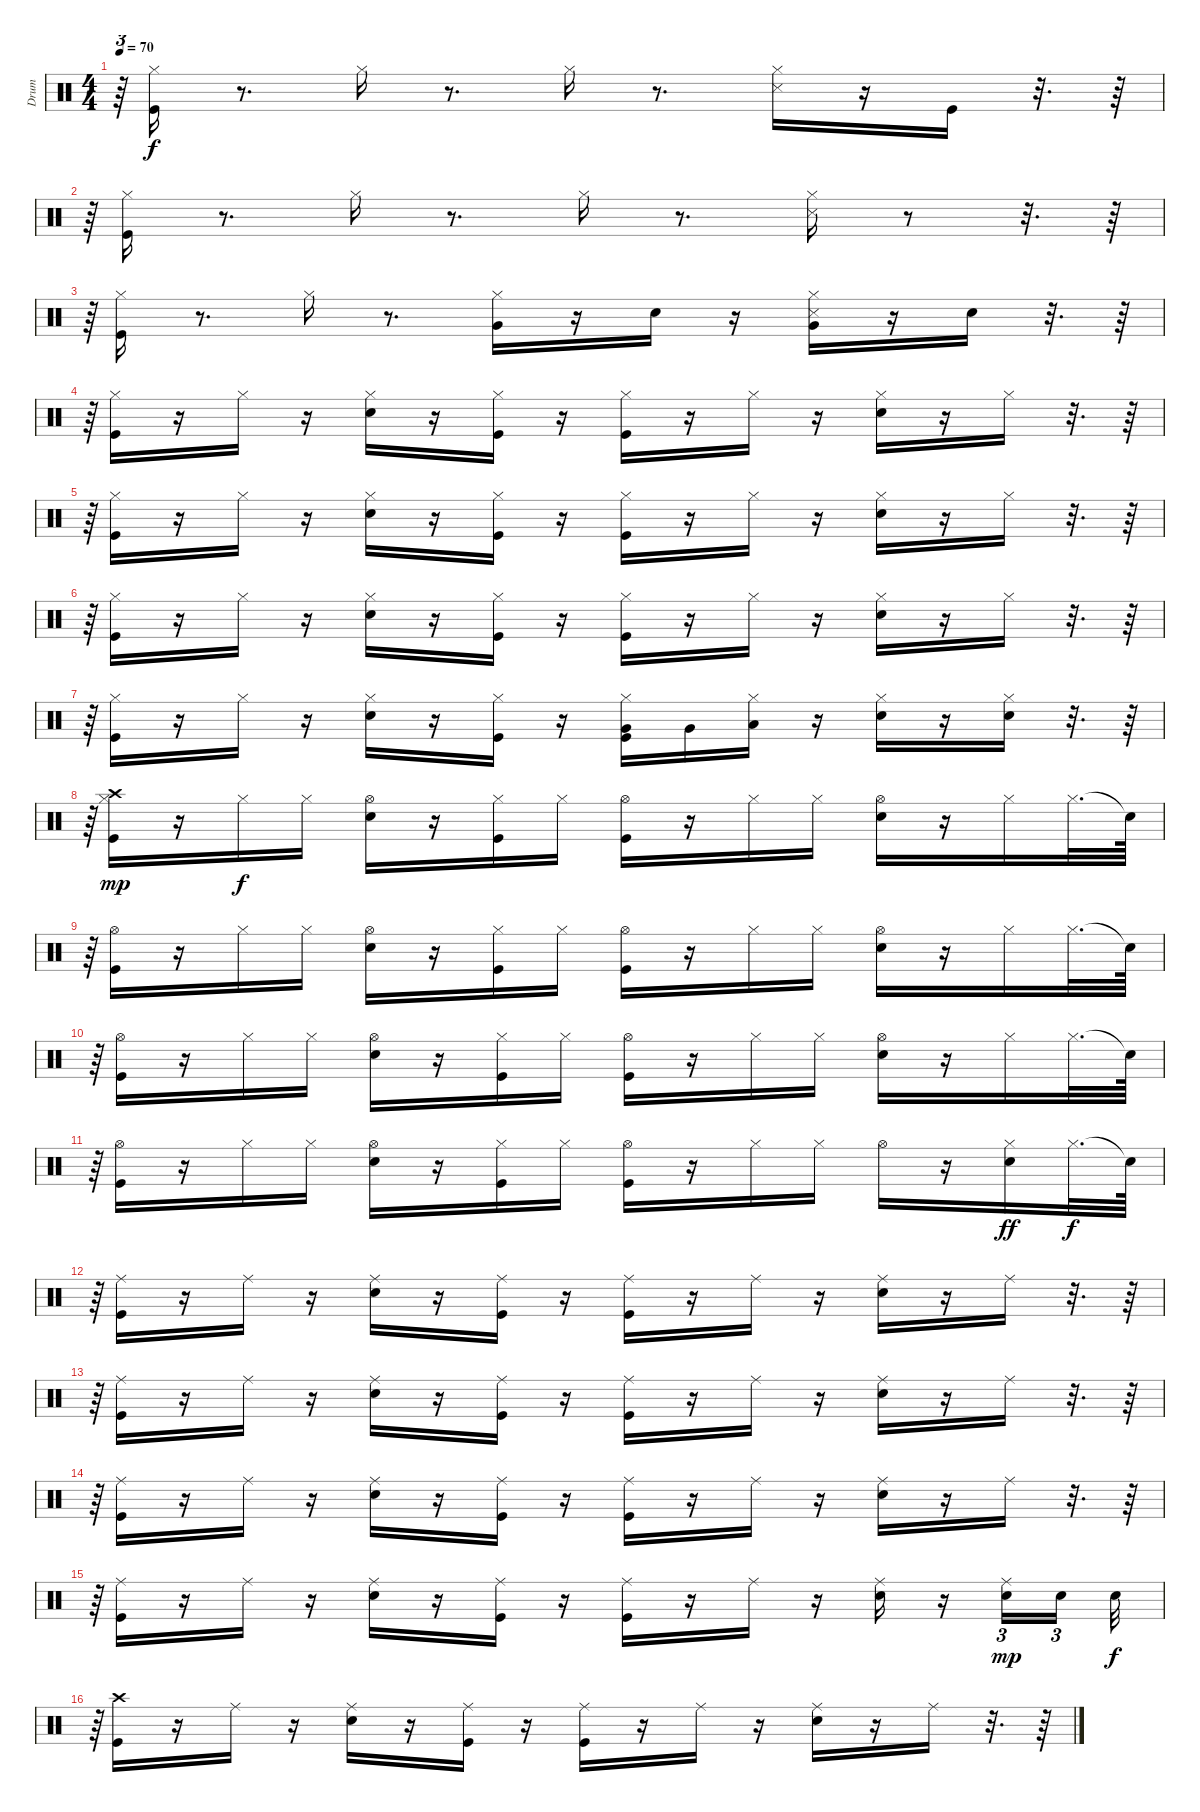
\track ("Drum" "Drum") {instrument percussion}
\staff {score}
\articulation defaults
\ts (4 4)
\tempo 70
\clef neutral
\ks c
r.64{tu (3 2) dy f} ("Kick (hit)" "Hi-Hat (closed)").16 r.8{d} "Hi-Hat (closed)".16 r.8{d} "Hi-Hat (closed)".16 r.8{d} ("Hi-Hat (closed)" "Snare (side stick) 3").16 r.16 "Kick (hit)".16 r.32{d} r.64 |
r.64{tu (3 2)} ("Kick (hit)" "Hi-Hat (closed)").16 r.8{d} "Hi-Hat (closed)".16 r.8{d} "Hi-Hat (closed)".16 r.8{d} ("Hi-Hat (closed)" "Snare (side stick) 3").16 r.8 r.32{d} r.64 |
r.64{tu (3 2)} ("Kick (hit)" "Hi-Hat (closed)").16 r.8{d} "Hi-Hat (closed)".16 r.8{d} ("Hi-Hat (closed)" "Very Low Tom (hit)").16 r.16 "Snare (hit) 2".16 r.16 ("Hi-Hat (closed)" "Snare (side stick) 3" "Very Low Tom (hit)").16 r.16 "Snare (hit) 2".16 r.32{d} r.64 |
r.64{tu (3 2)} ("Kick (hit)" "Hi-Hat (closed)").16 r.16 "Hi-Hat (closed)".16 r.16 ("Snare (hit) 2" "Hi-Hat (closed)").16 r.16 ("Kick (hit)" "Hi-Hat (closed)").16 r.16 ("Kick (hit)" "Hi-Hat (closed)").16 r.16 "Hi-Hat (closed)".16 r.16 ("Snare (hit) 2" "Hi-Hat (closed)").16 r.16 "Hi-Hat (closed)".16 r.32{d} r.64 |
r.64{tu (3 2)} ("Kick (hit)" "Hi-Hat (closed)").16 r.16 "Hi-Hat (closed)".16 r.16 ("Snare (hit) 2" "Hi-Hat (closed)").16 r.16 ("Kick (hit)" "Hi-Hat (closed)").16 r.16 ("Kick (hit)" "Hi-Hat (closed)").16 r.16 "Hi-Hat (closed)".16 r.16 ("Snare (hit) 2" "Hi-Hat (closed)").16 r.16 "Hi-Hat (closed)".16 r.32{d} r.64 |
r.64{tu (3 2)} ("Kick (hit)" "Hi-Hat (closed)").16 r.16 "Hi-Hat (closed)".16 r.16 ("Snare (hit) 2" "Hi-Hat (closed)").16 r.16 ("Kick (hit)" "Hi-Hat (closed)").16 r.16 ("Kick (hit)" "Hi-Hat (closed)").16 r.16 "Hi-Hat (closed)".16 r.16 ("Snare (hit) 2" "Hi-Hat (closed)").16 r.16 "Hi-Hat (closed)".16 r.32{d} r.64 |
r.64{tu (3 2)} ("Kick (hit)" "Hi-Hat (closed)").16 r.16 "Hi-Hat (closed)".16 r.16 ("Snare (hit) 2" "Hi-Hat (closed)").16 r.16 ("Kick (hit)" "Hi-Hat (closed)").16 r.16 ("Kick (hit)" "Hi-Hat (closed)" "Very Low Tom (hit)").16 "Very Low Tom (hit)".16 ("Hi-Hat (closed)" "Low Floor Tom (hit)").16 r.16 ("Snare (hit) 2" "Hi-Hat (closed)").16 r.16 ("Hi-Hat (closed)" "Snare (hit) 2").16 r.32{d} r.64 |
r.64{tu (3 2)} ("Kick (hit)" "Hi-Hat (closed)" "Crash high (hit)").16{dy mp} r.16 "Hi-Hat (closed)".16{dy f} "Hi-Hat (closed)".16 ("Snare (hit) 2" "Hi-Hat (open)").16 r.16 ("Kick (hit)" "Hi-Hat (closed)").16 "Hi-Hat (closed)".16 ("Kick (hit)" "Hi-Hat (open)").16 r.16 "Hi-Hat (closed)".16 "Hi-Hat (closed)".16 ("Snare (hit) 2" "Hi-Hat (open)").16 r.16 "Hi-Hat (closed)".16 "Hi-Hat (closed)".32{d} "Snare (hit)"{t}.64 |
r.64{tu (3 2)} ("Kick (hit)" "Hi-Hat (open)").16 r.16 "Hi-Hat (closed)".16 "Hi-Hat (closed)".16 ("Snare (hit) 2" "Hi-Hat (open)").16 r.16 ("Kick (hit)" "Hi-Hat (closed)").16 "Hi-Hat (closed)".16 ("Kick (hit)" "Hi-Hat (open)").16 r.16 "Hi-Hat (closed)".16 "Hi-Hat (closed)".16 ("Snare (hit) 2" "Hi-Hat (open)").16 r.16 "Hi-Hat (closed)".16 "Hi-Hat (closed)".32{d} "Snare (hit)"{t}.64 |
r.64{tu (3 2)} ("Kick (hit)" "Hi-Hat (open)").16 r.16 "Hi-Hat (closed)".16 "Hi-Hat (closed)".16 ("Snare (hit) 2" "Hi-Hat (open)").16 r.16 ("Kick (hit)" "Hi-Hat (closed)").16 "Hi-Hat (closed)".16 ("Kick (hit)" "Hi-Hat (open)").16 r.16 "Hi-Hat (closed)".16 "Hi-Hat (closed)".16 ("Snare (hit) 2" "Hi-Hat (open)").16 r.16 "Hi-Hat (closed)".16 "Hi-Hat (closed)".32{d} "Snare (hit)"{t}.64 |
r.64{tu (3 2)} ("Kick (hit)" "Hi-Hat (open)").16 r.16 "Hi-Hat (closed)".16 "Hi-Hat (closed)".16 ("Snare (hit) 2" "Hi-Hat (open)").16 r.16 ("Kick (hit)" "Hi-Hat (closed)").16 "Hi-Hat (closed)".16 ("Kick (hit)" "Hi-Hat (open)").16 r.16 "Hi-Hat (closed)".16 "Hi-Hat (closed)".16 "Hi-Hat (open)".16 r.16 ("Hi-Hat (closed)" "Snare (hit) 2").16{dy ff} "Hi-Hat (closed)".32{d dy f} "Snare (hit)"{t}.64 |
r.64{tu (3 2)} ("Kick (hit)" "Ride (middle)").16 r.16 "Ride (middle)".16 r.16 ("Snare (hit) 2" "Ride (middle)").16 r.16 ("Kick (hit)" "Ride (middle)").16 r.16 ("Kick (hit)" "Ride (middle)").16 r.16 "Ride (middle)".16 r.16 ("Snare (hit) 2" "Ride (middle)").16 r.16 "Ride (middle)".16 r.32{d} r.64 |
r.64{tu (3 2)} ("Kick (hit)" "Ride (middle)").16 r.16 "Ride (middle)".16 r.16 ("Snare (hit) 2" "Ride (middle)").16 r.16 ("Kick (hit)" "Ride (middle)").16 r.16 ("Kick (hit)" "Ride (middle)").16 r.16 "Ride (middle)".16 r.16 ("Snare (hit) 2" "Ride (middle)").16 r.16 "Ride (middle)".16 r.32{d} r.64 |
r.64{tu (3 2)} ("Kick (hit)" "Ride (middle)").16 r.16 "Ride (middle)".16 r.16 ("Snare (hit) 2" "Ride (middle)").16 r.16 ("Kick (hit)" "Ride (middle)").16 r.16 ("Kick (hit)" "Ride (middle)").16 r.16 "Ride (middle)".16 r.16 ("Snare (hit) 2" "Ride (middle)").16 r.16 "Ride (middle)".16 r.32{d} r.64 |
r.64{tu (3 2)} ("Kick (hit)" "Ride (middle)").16 r.16 "Ride (middle)".16 r.16 ("Snare (hit) 2" "Ride (middle)").16 r.16 ("Kick (hit)" "Ride (middle)").16 r.16 ("Kick (hit)" "Ride (middle)").16 r.16 "Ride (middle)".16 r.16 ("Snare (hit) 2" "Ride (middle)").16 r.16 ("Ride (middle)" "Snare (hit) 2").16{tu (3 2) dy mp} "Snare (hit) 2".16{tu (3 2)} "Snare (hit) 2".32{dy f} |
r.64{tu (3 2)} ("Kick (hit)" "Crash high (hit)").16 r.16 "Ride (middle)".16 r.16 ("Snare (hit) 2" "Ride (middle)").16 r.16 ("Kick (hit)" "Ride (middle)").16 r.16 ("Kick (hit)" "Ride (middle)").16 r.16 "Ride (middle)".16 r.16 ("Snare (hit) 2" "Ride (middle)").16 r.16 "Ride (middle)".16 r.32{d} r.64
